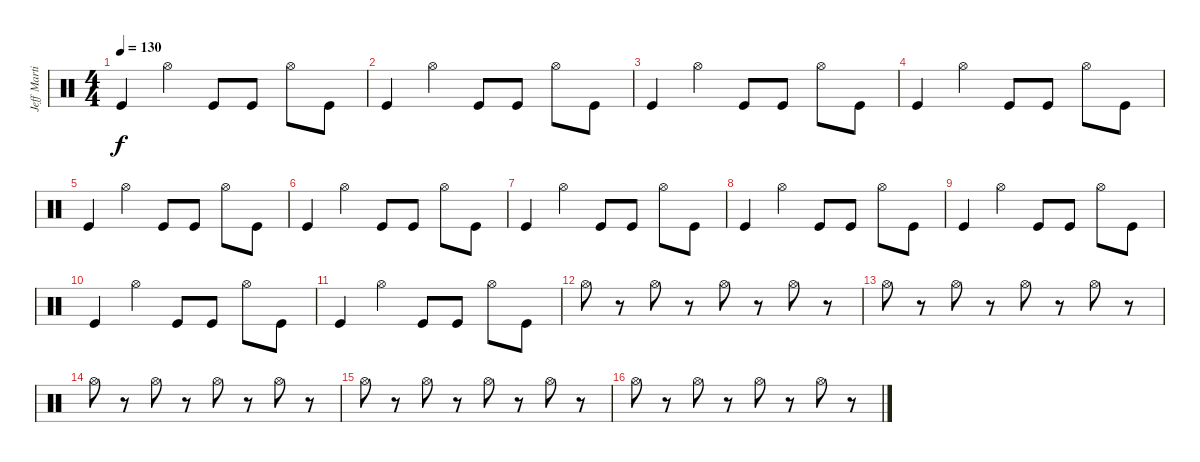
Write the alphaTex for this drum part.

\track ("Jeff Martin" "Jeff Marti") {instrument percussion}
\staff {score}
\articulation defaults
\ts (4 4)
\tempo 130
\clef neutral
\ks c "Kick (hit)".4{dy f} "Hi-Hat (open)".4 "Kick (hit)".8 "Kick (hit)".8 "Hi-Hat (open)".8 "Kick (hit)".8
|
"Kick (hit)".4 "Hi-Hat (open)".4 "Kick (hit)".8 "Kick (hit)".8 "Hi-Hat (open)".8 "Kick (hit)".8 |
"Kick (hit)".4 "Hi-Hat (open)".4 "Kick (hit)".8 "Kick (hit)".8 "Hi-Hat (open)".8 "Kick (hit)".8 |
"Kick (hit)".4 "Hi-Hat (open)".4 "Kick (hit)".8 "Kick (hit)".8 "Hi-Hat (open)".8 "Kick (hit)".8 |
"Kick (hit)".4 "Hi-Hat (open)".4 "Kick (hit)".8 "Kick (hit)".8 "Hi-Hat (open)".8 "Kick (hit)".8 |
"Kick (hit)".4 "Hi-Hat (open)".4 "Kick (hit)".8 "Kick (hit)".8 "Hi-Hat (open)".8 "Kick (hit)".8 |
"Kick (hit)".4 "Hi-Hat (open)".4 "Kick (hit)".8 "Kick (hit)".8 "Hi-Hat (open)".8 "Kick (hit)".8 |
"Kick (hit)".4 "Hi-Hat (open)".4 "Kick (hit)".8 "Kick (hit)".8 "Hi-Hat (open)".8 "Kick (hit)".8 |
"Kick (hit)".4 "Hi-Hat (open)".4 "Kick (hit)".8 "Kick (hit)".8 "Hi-Hat (open)".8 "Kick (hit)".8 |
"Kick (hit)".4 "Hi-Hat (open)".4 "Kick (hit)".8 "Kick (hit)".8 "Hi-Hat (open)".8 "Kick (hit)".8 |
"Kick (hit)".4 "Hi-Hat (open)".4 "Kick (hit)".8 "Kick (hit)".8 "Hi-Hat (open)".8 "Kick (hit)".8 |
"Hi-Hat (open)".8 r.8 "Hi-Hat (open)".8 r.8 "Hi-Hat (open)".8 r.8 "Hi-Hat (open)".8 r.8 |
"Hi-Hat (open)".8 r.8 "Hi-Hat (open)".8 r.8 "Hi-Hat (open)".8 r.8 "Hi-Hat (open)".8 r.8 |
"Hi-Hat (open)".8 r.8 "Hi-Hat (open)".8 r.8 "Hi-Hat (open)".8 r.8 "Hi-Hat (open)".8 r.8 |
"Hi-Hat (open)".8 r.8 "Hi-Hat (open)".8 r.8 "Hi-Hat (open)".8 r.8 "Hi-Hat (open)".8 r.8 |
"Hi-Hat (open)".8 r.8 "Hi-Hat (open)".8 r.8 "Hi-Hat (open)".8 r.8 "Hi-Hat (open)".8 r.8
